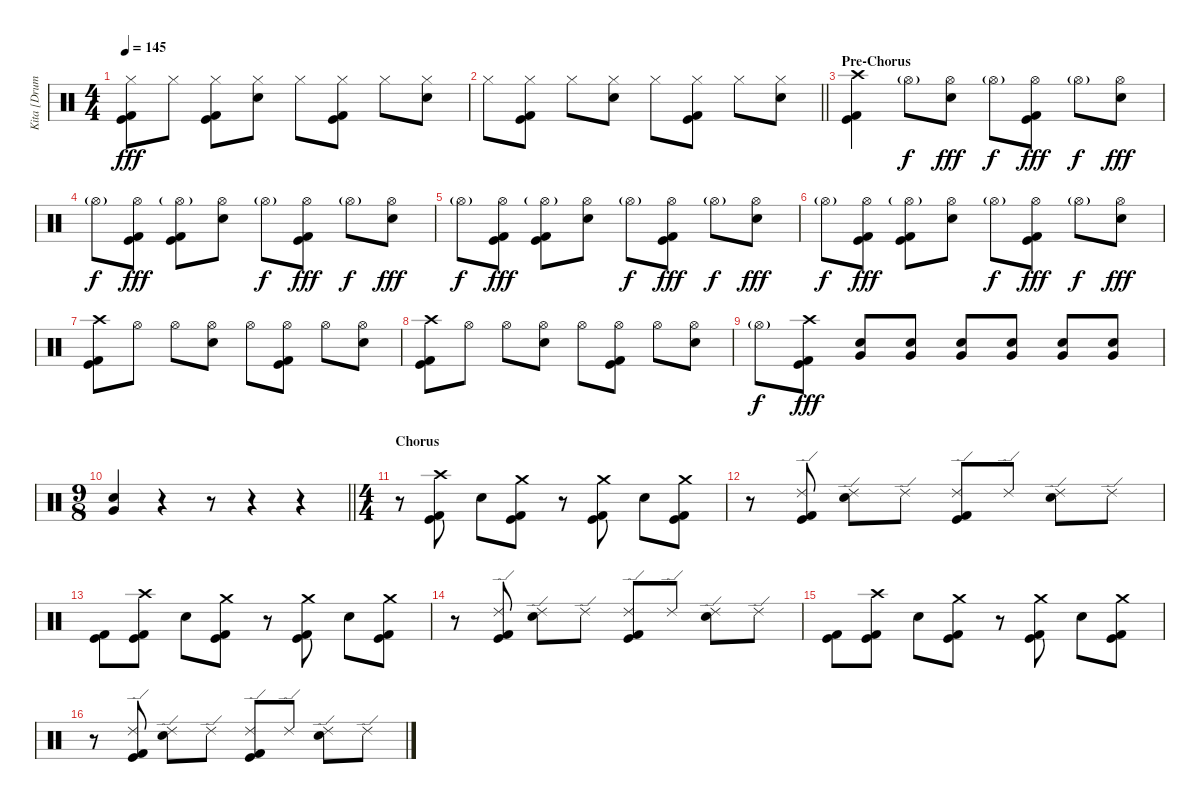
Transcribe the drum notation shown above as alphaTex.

\track ("Kita [Drums]" "Kita [Drum") {instrument percussion}
\staff {score}
\articulation defaults
\ts (4 4)
\tempo 145
\clef neutral
\ks c
("Hi-Hat (closed)" "Kick (hit)" "Kick (hit) 2").8{dy fff} "Hi-Hat (closed)".8 ("Hi-Hat (closed)" "Kick (hit)" "Kick (hit) 2").8 ("Hi-Hat (closed)" "Electric Snare (hit)").8 "Hi-Hat (closed)".8 ("Hi-Hat (closed)" "Kick (hit)" "Kick (hit) 2").8 "Hi-Hat (closed)".8 ("Hi-Hat (closed)" "Electric Snare (hit)").8 |
\barLineRight lightlight "Hi-Hat (closed)".8
("Hi-Hat (closed)" "Kick (hit)" "Kick (hit) 2").8 "Hi-Hat (closed)".8 ("Hi-Hat (closed)" "Electric Snare (hit)").8 "Hi-Hat (closed)".8 ("Hi-Hat (closed)" "Kick (hit)" "Kick (hit) 2").8 "Hi-Hat (closed)".8 ("Hi-Hat (closed)" "Electric Snare (hit)").8 |
\section ("" "Pre-Chorus")
("Crash high (hit)" "Kick (hit)" "Kick (hit) 2").4 "Hi-Hat (open)"{g}.8{dy f} ("Hi-Hat (open)" "Electric Snare (hit)").8{dy fff} "Hi-Hat (open)"{g}.8{dy f} ("Hi-Hat (open)" "Kick (hit)" "Kick (hit) 2").8{dy fff} "Hi-Hat (open)"{g}.8{dy f} ("Hi-Hat (open)" "Electric Snare (hit)").8{dy fff} |
"Hi-Hat (open)"{g}.8{dy f} ("Hi-Hat (open)" "Kick (hit)" "Kick (hit) 2").8{dy fff} ("Hi-Hat (open)"{g} "Kick (hit)" "Kick (hit) 2").8 ("Hi-Hat (open)" "Electric Snare (hit)").8 "Hi-Hat (open)"{g}.8{dy f} ("Hi-Hat (open)" "Kick (hit)" "Kick (hit) 2").8{dy fff} "Hi-Hat (open)"{g}.8{dy f} ("Hi-Hat (open)" "Electric Snare (hit)").8{dy fff} |
"Hi-Hat (open)"{g}.8{dy f} ("Hi-Hat (open)" "Kick (hit)" "Kick (hit) 2").8{dy fff} ("Hi-Hat (open)"{g} "Kick (hit)" "Kick (hit) 2").8 ("Hi-Hat (open)" "Electric Snare (hit)").8 "Hi-Hat (open)"{g}.8{dy f} ("Hi-Hat (open)" "Kick (hit)" "Kick (hit) 2").8{dy fff} "Hi-Hat (open)"{g}.8{dy f} ("Hi-Hat (open)" "Electric Snare (hit)").8{dy fff} |
"Hi-Hat (open)"{g}.8{dy f} ("Hi-Hat (open)" "Kick (hit)" "Kick (hit) 2").8{dy fff} ("Hi-Hat (open)"{g} "Kick (hit)" "Kick (hit) 2").8 ("Hi-Hat (open)" "Electric Snare (hit)").8 "Hi-Hat (open)"{g}.8{dy f} ("Hi-Hat (open)" "Kick (hit)" "Kick (hit) 2").8{dy fff} "Hi-Hat (open)"{g}.8{dy f} ("Hi-Hat (open)" "Electric Snare (hit)").8{dy fff} |
("Crash high (hit)" "Kick (hit)" "Kick (hit) 2").8 "Hi-Hat (open)".8 "Hi-Hat (open)".8 ("Hi-Hat (open)" "Electric Snare (hit)").8 "Hi-Hat (open)".8 ("Hi-Hat (open)" "Kick (hit)" "Kick (hit) 2").8 "Hi-Hat (open)".8 ("Hi-Hat (open)" "Electric Snare (hit)").8 |
("Crash high (hit)" "Kick (hit)" "Kick (hit) 2").8 "Hi-Hat (open)".8 "Hi-Hat (open)".8 ("Hi-Hat (open)" "Electric Snare (hit)").8 "Hi-Hat (open)".8 ("Hi-Hat (open)" "Kick (hit)" "Kick (hit) 2").8 "Hi-Hat (open)".8 ("Hi-Hat (open)" "Electric Snare (hit)").8 |
"Hi-Hat (open)"{g}.8{dy f} ("Crash high (hit)" "Kick (hit)" "Kick (hit) 2").8{dy fff} ("Electric Snare (hit)" "Very Low Tom (hit)").8 ("Electric Snare (hit)" "Very Low Tom (hit)").8 ("Electric Snare (hit)" "Very Low Tom (hit)").8 ("Electric Snare (hit)" "Very Low Tom (hit)").8 ("Electric Snare (hit)" "Very Low Tom (hit)").8 ("Electric Snare (hit)" "Very Low Tom (hit)").8 |
\ts (9 8)
\barLineRight lightlight
("Electric Snare (hit)" "Very Low Tom (hit)").4 r.4 r.8 r.4 r.4 |
\ts (4 4)
\section ("" "Chorus")
r.8 ("Crash high (hit)" "Kick (hit)" "Kick (hit) 2").8 "Electric Snare (hit)".8 ("Crash medium (hit)" "Kick (hit)" "Kick (hit) 2").8 r.8 ("Crash medium (hit)" "Kick (hit)" "Kick (hit) 2").8 "Electric Snare (hit)".8 ("Crash medium (hit)" "Kick (hit)" "Kick (hit) 2").8 |
r.8 ("Ride (edge) 2" "Kick (hit)" "Kick (hit) 2").8 ("Ride (edge) 2" "Electric Snare (hit)").8 "Ride (edge) 2".8 ("Ride (edge) 2" "Kick (hit)" "Kick (hit) 2").8 "Ride (edge) 2".8 ("Ride (edge) 2" "Electric Snare (hit)").8 "Ride (edge) 2".8 |
("Kick (hit)" "Kick (hit) 2").8 ("Crash high (hit)" "Kick (hit)" "Kick (hit) 2").8 "Electric Snare (hit)".8 ("Crash medium (hit)" "Kick (hit)" "Kick (hit) 2").8 r.8 ("Crash medium (hit)" "Kick (hit)" "Kick (hit) 2").8 "Electric Snare (hit)".8 ("Crash medium (hit)" "Kick (hit)" "Kick (hit) 2").8 |
r.8 ("Ride (edge) 2" "Kick (hit)" "Kick (hit) 2").8 ("Ride (edge) 2" "Electric Snare (hit)").8 "Ride (edge) 2".8 ("Ride (edge) 2" "Kick (hit)" "Kick (hit) 2").8 "Ride (edge) 2".8 ("Ride (edge) 2" "Electric Snare (hit)").8 "Ride (edge) 2".8 |
("Kick (hit)" "Kick (hit) 2").8 ("Crash high (hit)" "Kick (hit)" "Kick (hit) 2").8 "Electric Snare (hit)".8 ("Crash medium (hit)" "Kick (hit)" "Kick (hit) 2").8 r.8 ("Crash medium (hit)" "Kick (hit)" "Kick (hit) 2").8 "Electric Snare (hit)".8 ("Crash medium (hit)" "Kick (hit)" "Kick (hit) 2").8 |
r.8 ("Ride (edge) 2" "Kick (hit)" "Kick (hit) 2").8 ("Ride (edge) 2" "Electric Snare (hit)").8 "Ride (edge) 2".8 ("Ride (edge) 2" "Kick (hit)" "Kick (hit) 2").8 "Ride (edge) 2".8 ("Ride (edge) 2" "Electric Snare (hit)").8 "Ride (edge) 2".8
